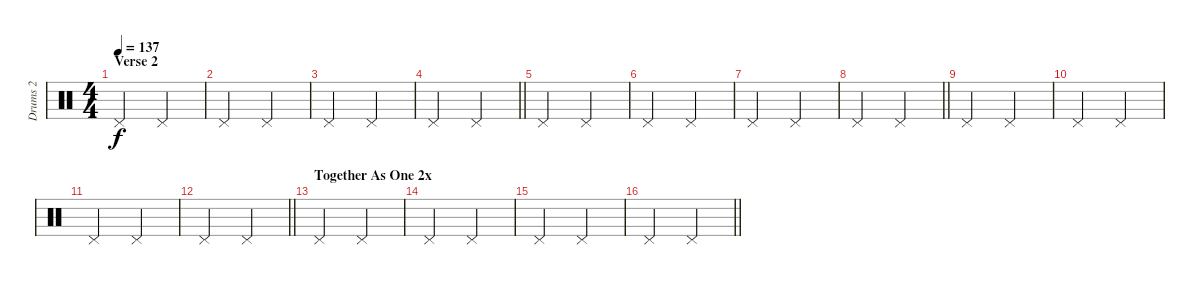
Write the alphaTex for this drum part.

\track ("Drums 2" "Drums 2") {instrument percussion}
\staff {score}
\articulation defaults
\ts (4 4)
\section ("" "Verse 2")
\tempo 137
\clef neutral
\ks c "Pedal Hi-Hat (hit)".2{dy f} "Pedal Hi-Hat (hit)".2
|
"Pedal Hi-Hat (hit)".2 "Pedal Hi-Hat (hit)".2 |
"Pedal Hi-Hat (hit)".2 "Pedal Hi-Hat (hit)".2 |
\barLineRight lightlight "Pedal Hi-Hat (hit)".2 "Pedal Hi-Hat (hit)".2
|
"Pedal Hi-Hat (hit)".2 "Pedal Hi-Hat (hit)".2 |
"Pedal Hi-Hat (hit)".2 "Pedal Hi-Hat (hit)".2 |
"Pedal Hi-Hat (hit)".2 "Pedal Hi-Hat (hit)".2 |
\barLineRight lightlight "Pedal Hi-Hat (hit)".2 "Pedal Hi-Hat (hit)".2
|
"Pedal Hi-Hat (hit)".2 "Pedal Hi-Hat (hit)".2 |
"Pedal Hi-Hat (hit)".2 "Pedal Hi-Hat (hit)".2 |
"Pedal Hi-Hat (hit)".2 "Pedal Hi-Hat (hit)".2 |
\barLineRight lightlight "Pedal Hi-Hat (hit)".2 "Pedal Hi-Hat (hit)".2
|
\section ("" "Together As One 2x")
"Pedal Hi-Hat (hit)".2 "Pedal Hi-Hat (hit)".2 |
"Pedal Hi-Hat (hit)".2 "Pedal Hi-Hat (hit)".2 |
"Pedal Hi-Hat (hit)".2 "Pedal Hi-Hat (hit)".2 |
\barLineRight lightlight "Pedal Hi-Hat (hit)".2 "Pedal Hi-Hat (hit)".2
